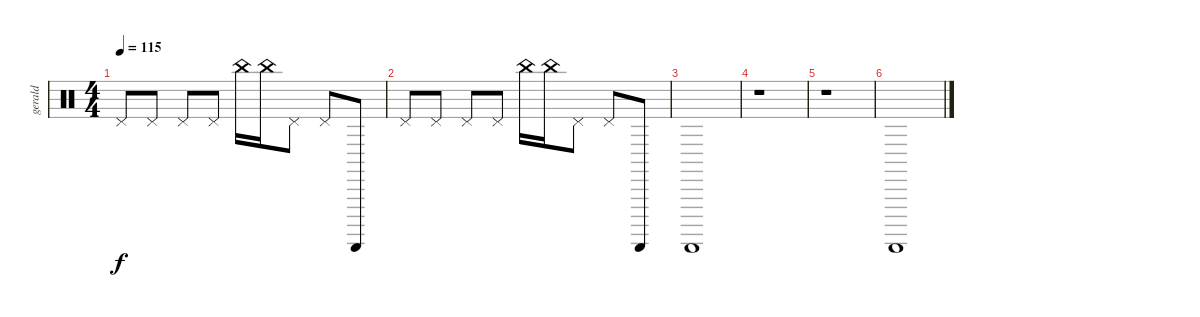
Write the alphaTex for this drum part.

\track ("gerald" "gerald") {instrument percussion}
\staff {score}
\articulation defaults
\ts (4 4)
\tempo 115
\clef neutral
\ks c "Pedal Hi-Hat (hit)".8{dy f} "Pedal Hi-Hat (hit)".8 "Pedal Hi-Hat (hit)".8 "Pedal Hi-Hat (hit)".8 "China (hit)".16 "China (hit)".16 "Pedal Hi-Hat (hit)".8 "Pedal Hi-Hat (hit)".8 "Guiro (scrap-return)".8
|
"Pedal Hi-Hat (hit)".8 "Pedal Hi-Hat (hit)".8 "Pedal Hi-Hat (hit)".8 "Pedal Hi-Hat (hit)".8 "China (hit)".16 "China (hit)".16 "Pedal Hi-Hat (hit)".8 "Pedal Hi-Hat (hit)".8 "Guiro (scrap-return)".8 |
"Guiro (scrap-return)".1 |
r.1 |
r.1 |
"Guiro (scrap-return)".1
